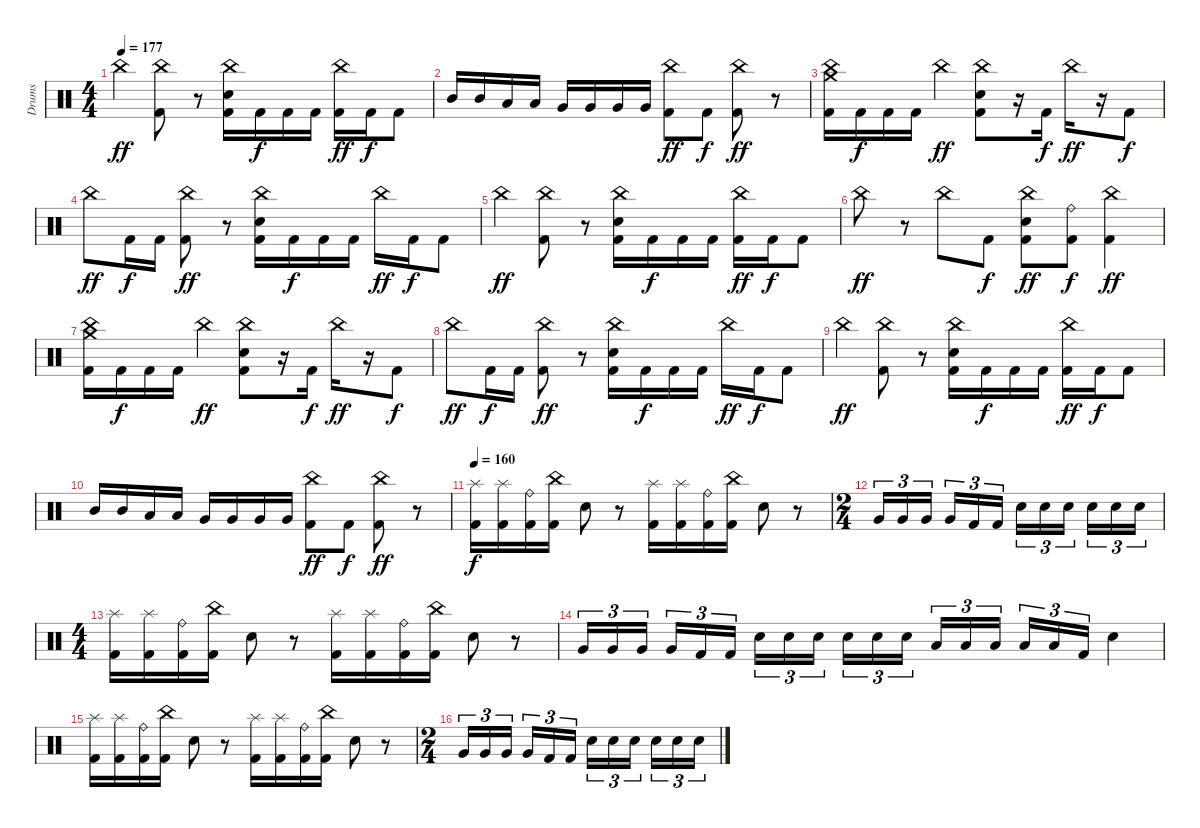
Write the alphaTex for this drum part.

\track ("Drums" "Drums") {instrument percussion}
\staff {score}
\articulation defaults
\ts (4 4)
\tempo 177
\clef neutral
\ks c "China (hit)".4{dy ff}
("China (hit)" "Kick (hit) 2").8 r.8 ("China (hit)" "Electric Snare (hit)" "Kick (hit) 2").16 "Kick (hit) 2".16{dy f} "Kick (hit) 2".16 "Kick (hit) 2".16 ("China (hit)" "Kick (hit) 2").16{dy ff} "Kick (hit) 2".16{dy f} "Kick (hit) 2".8 |
"Mid Tom (hit)".16 "Mid Tom (hit)".16 "Low Tom (hit)".16 "Low Tom (hit)".16 "Very Low Tom (hit)".16 "Very Low Tom (hit)".16 "Very Low Tom (hit)".16 "Very Low Tom (hit)".16 ("China (hit)" "Kick (hit) 2").8{dy ff} "Kick (hit) 2".8{dy f} ("China (hit)" "Kick (hit) 2").8{dy ff} r.8 |
("China (hit)" "Crash medium (hit)" "Kick (hit) 2").16 "Kick (hit) 2".16{dy f} "Kick (hit) 2".16 "Kick (hit) 2".16 "China (hit)".4{dy ff} ("China (hit)" "Electric Snare (hit)" "Kick (hit) 2").8 r.16 "Kick (hit) 2".16{dy f} "China (hit)".16{dy ff} r.16 "Kick (hit) 2".8{dy f} |
"China (hit)".8{dy ff} "Kick (hit) 2".16{dy f} "Kick (hit) 2".16 ("China (hit)" "Kick (hit) 2").8{dy ff} r.8 ("China (hit)" "Electric Snare (hit)" "Kick (hit) 2").16 "Kick (hit) 2".16{dy f} "Kick (hit) 2".16 "Kick (hit) 2".16 "China (hit)".16{dy ff} "Kick (hit) 2".16{dy f} "Kick (hit) 2".8 |
"China (hit)".4{dy ff} ("China (hit)" "Kick (hit) 2").8 r.8 ("China (hit)" "Electric Snare (hit)" "Kick (hit) 2").16 "Kick (hit) 2".16{dy f} "Kick (hit) 2".16 "Kick (hit) 2".16 ("China (hit)" "Kick (hit) 2").16{dy ff} "Kick (hit) 2".16{dy f} "Kick (hit) 2".8 |
"China (hit)".8{dy ff} r.8 "China (hit)".8 "Kick (hit) 2".8{dy f} ("China (hit)" "Electric Snare (hit)" "Kick (hit) 2").8{dy ff} ("Ride (bell)" "Kick (hit) 2").8{dy f} ("China (hit)" "Kick (hit) 2").4{dy ff} |
("China (hit)" "Crash medium (hit)" "Kick (hit) 2").16 "Kick (hit) 2".16{dy f} "Kick (hit) 2".16 "Kick (hit) 2".16 "China (hit)".4{dy ff} ("China (hit)" "Electric Snare (hit)" "Kick (hit) 2").8 r.16 "Kick (hit) 2".16{dy f} "China (hit)".16{dy ff} r.16 "Kick (hit) 2".8{dy f} |
"China (hit)".8{dy ff} "Kick (hit) 2".16{dy f} "Kick (hit) 2".16 ("China (hit)" "Kick (hit) 2").8{dy ff} r.8 ("China (hit)" "Electric Snare (hit)" "Kick (hit) 2").16 "Kick (hit) 2".16{dy f} "Kick (hit) 2".16 "Kick (hit) 2".16 "China (hit)".16{dy ff} "Kick (hit) 2".16{dy f} "Kick (hit) 2".8 |
"China (hit)".4{dy ff} ("China (hit)" "Kick (hit) 2").8 r.8 ("China (hit)" "Electric Snare (hit)" "Kick (hit) 2").16 "Kick (hit) 2".16{dy f} "Kick (hit) 2".16 "Kick (hit) 2".16 ("China (hit)" "Kick (hit) 2").16{dy ff} "Kick (hit) 2".16{dy f} "Kick (hit) 2".8 |
"Mid Tom (hit)".16 "Mid Tom (hit)".16 "Low Tom (hit)".16 "Low Tom (hit)".16 "Very Low Tom (hit)".16 "Very Low Tom (hit)".16 "Very Low Tom (hit)".16 "Very Low Tom (hit)".16 ("China (hit)" "Kick (hit) 2").8{dy ff} "Kick (hit) 2".8{dy f} ("China (hit)" "Kick (hit) 2").8{dy ff} r.8 |
\tempo 160
("Splash (hit)" "Kick (hit) 2").16{dy f} ("Splash (hit)" "Kick (hit) 2").16 ("Ride (bell)" "Kick (hit) 2").16 ("China (hit)" "Kick (hit) 2").16 "Electric Snare (hit)".8 r.8 ("Splash (hit)" "Kick (hit) 2").16 ("Splash (hit)" "Kick (hit) 2").16 ("Ride (bell)" "Kick (hit) 2").16 ("China (hit)" "Kick (hit) 2").16 "Electric Snare (hit)".8 r.8 |
\ts (2 4)
"Very Low Tom (hit)".16{tu (3 2)} "Very Low Tom (hit)".16{tu (3 2)} "Very Low Tom (hit)".16{tu (3 2) beam splitsecondary} "Very Low Tom (hit)".16{tu (3 2)} "Kick (hit) 2".16{tu (3 2)} "Kick (hit) 2".16{tu (3 2)} "Electric Snare (hit)".16{tu (3 2)} "Electric Snare (hit)".16{tu (3 2)} "Electric Snare (hit)".16{tu (3 2) beam splitsecondary} "Electric Snare (hit)".16{tu (3 2)} "Electric Snare (hit)".16{tu (3 2)} "Electric Snare (hit)".16{tu (3 2)} |
\ts (4 4)
("Splash (hit)" "Kick (hit) 2").16 ("Splash (hit)" "Kick (hit) 2").16 ("Ride (bell)" "Kick (hit) 2").16 ("China (hit)" "Kick (hit) 2").16 "Electric Snare (hit)".8 r.8 ("Splash (hit)" "Kick (hit) 2").16 ("Splash (hit)" "Kick (hit) 2").16 ("Ride (bell)" "Kick (hit) 2").16 ("China (hit)" "Kick (hit) 2").16 "Electric Snare (hit)".8 r.8 |
"Very Low Tom (hit)".16{tu (3 2)} "Very Low Tom (hit)".16{tu (3 2)} "Very Low Tom (hit)".16{tu (3 2) beam splitsecondary} "Very Low Tom (hit)".16{tu (3 2)} "Kick (hit) 2".16{tu (3 2)} "Kick (hit) 2".16{tu (3 2)} "Electric Snare (hit)".16{tu (3 2)} "Electric Snare (hit)".16{tu (3 2)} "Electric Snare (hit)".16{tu (3 2) beam splitsecondary} "Electric Snare (hit)".16{tu (3 2)} "Electric Snare (hit)".16{tu (3 2)} "Electric Snare (hit)".16{tu (3 2)} "Low Tom (hit)".16{tu (3 2)} "Low Tom (hit)".16{tu (3 2)} "Low Tom (hit)".16{tu (3 2) beam splitsecondary} "Low Tom (hit)".16{tu (3 2)} "Low Tom (hit)".16{tu (3 2)} "Kick (hit) 2".16{tu (3 2)} "Electric Snare (hit)".4 |
("Splash (hit)" "Kick (hit) 2").16 ("Splash (hit)" "Kick (hit) 2").16 ("Ride (bell)" "Kick (hit) 2").16 ("China (hit)" "Kick (hit) 2").16 "Electric Snare (hit)".8 r.8 ("Splash (hit)" "Kick (hit) 2").16 ("Splash (hit)" "Kick (hit) 2").16 ("Ride (bell)" "Kick (hit) 2").16 ("China (hit)" "Kick (hit) 2").16 "Electric Snare (hit)".8 r.8 |
\ts (2 4)
"Very Low Tom (hit)".16{tu (3 2)} "Very Low Tom (hit)".16{tu (3 2)} "Very Low Tom (hit)".16{tu (3 2) beam splitsecondary} "Very Low Tom (hit)".16{tu (3 2)} "Kick (hit) 2".16{tu (3 2)} "Kick (hit) 2".16{tu (3 2)} "Electric Snare (hit)".16{tu (3 2)} "Electric Snare (hit)".16{tu (3 2)} "Electric Snare (hit)".16{tu (3 2) beam splitsecondary} "Electric Snare (hit)".16{tu (3 2)} "Electric Snare (hit)".16{tu (3 2)} "Electric Snare (hit)".16{tu (3 2)}
